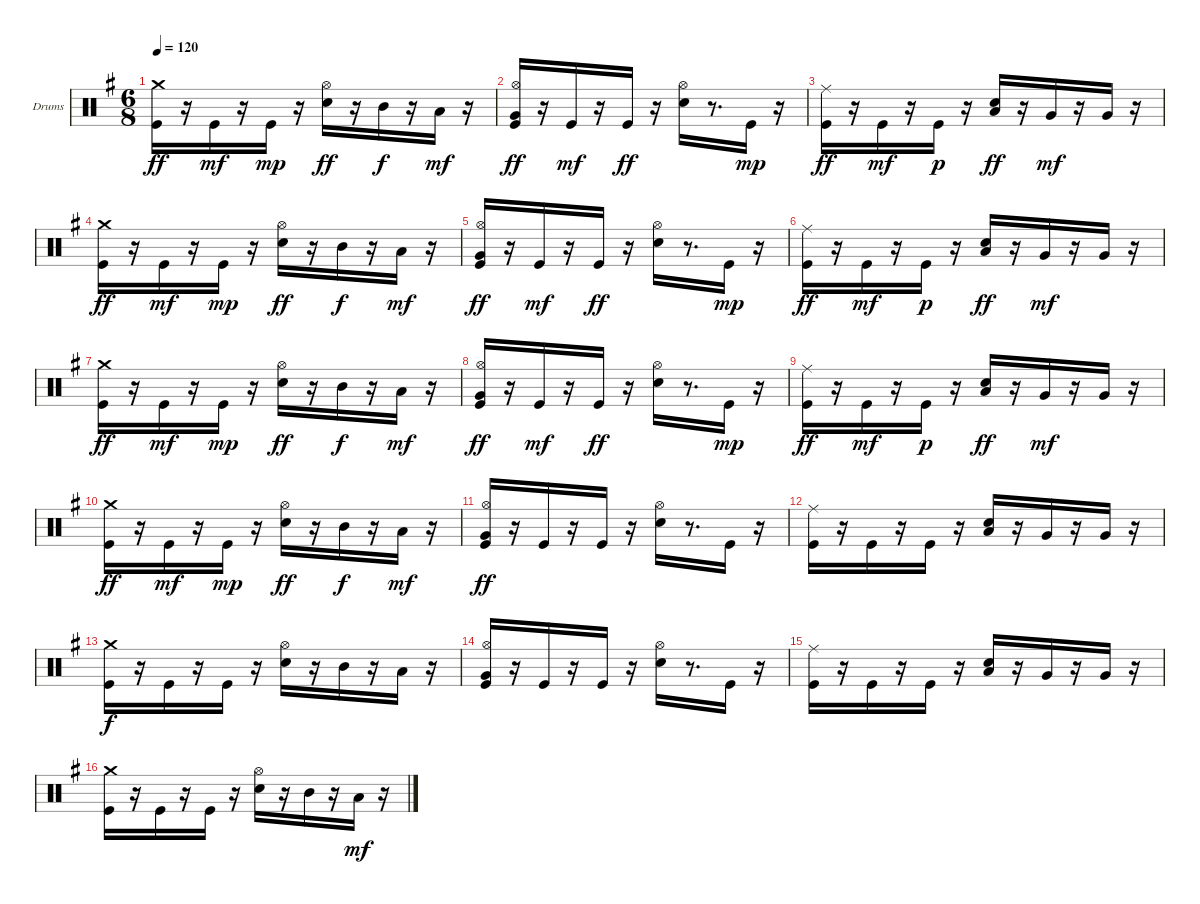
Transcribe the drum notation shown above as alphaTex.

\bracketExtendMode groupsimilarinstruments
\firstSystemTrackNameOrientation horizontal
\otherSystemsTrackNameOrientation horizontal
\track ("Drumkit" "Drums") {instrument percussion}
\staff {score}
\articulation defaults
\ts (6 8)
\tempo 120
\clef neutral
\ks eminor
("Crash medium (hit)" "Kick (hit)").16{dy ff} r.16 "Kick (hit)".16{dy mf} r.16 "Kick (hit)".16{dy mp} r.16 ("Hi-Hat (open)" "Snare (hit) 2").16{dy ff} r.16 "Mid Tom (hit)".16{dy f} r.16 "Low Tom (hit)".16{dy mf} r.16 |
("Hi-Hat (open)" "Very Low Tom (hit)" "Kick (hit)").16{dy ff} r.16 "Kick (hit)".16{dy mf} r.16 "Kick (hit)".16{dy ff} r.16 ("Hi-Hat (open)" "Snare (hit) 2").16 r.8{d} "Kick (hit)".16{dy mp} r.16 |
("Ride (middle)" "Kick (hit)").16{dy ff} r.16 "Kick (hit)".16{dy mf} r.16 "Kick (hit)".16{dy p} r.16 ("Low Tom (hit)" "Snare (hit) 2").16{dy ff} r.16 "Very Low Tom (hit)".16{dy mf} r.16 "Very Low Tom (hit)".16 r.16 |
("Crash medium (hit)" "Kick (hit)").16{dy ff} r.16 "Kick (hit)".16{dy mf} r.16 "Kick (hit)".16{dy mp} r.16 ("Hi-Hat (open)" "Snare (hit) 2").16{dy ff} r.16 "Mid Tom (hit)".16{dy f} r.16 "Low Tom (hit)".16{dy mf} r.16 |
("Hi-Hat (open)" "Very Low Tom (hit)" "Kick (hit)").16{dy ff} r.16 "Kick (hit)".16{dy mf} r.16 "Kick (hit)".16{dy ff} r.16 ("Hi-Hat (open)" "Snare (hit) 2").16 r.8{d} "Kick (hit)".16{dy mp} r.16 |
("Ride (middle)" "Kick (hit)").16{dy ff} r.16 "Kick (hit)".16{dy mf} r.16 "Kick (hit)".16{dy p} r.16 ("Low Tom (hit)" "Snare (hit) 2").16{dy ff} r.16 "Very Low Tom (hit)".16{dy mf} r.16 "Very Low Tom (hit)".16 r.16 |
("Crash medium (hit)" "Kick (hit)").16{dy ff} r.16 "Kick (hit)".16{dy mf} r.16 "Kick (hit)".16{dy mp} r.16 ("Hi-Hat (open)" "Snare (hit) 2").16{dy ff} r.16 "Mid Tom (hit)".16{dy f} r.16 "Low Tom (hit)".16{dy mf} r.16 |
("Hi-Hat (open)" "Very Low Tom (hit)" "Kick (hit)").16{dy ff} r.16 "Kick (hit)".16{dy mf} r.16 "Kick (hit)".16{dy ff} r.16 ("Hi-Hat (open)" "Snare (hit) 2").16 r.8{d} "Kick (hit)".16{dy mp} r.16 |
("Ride (middle)" "Kick (hit)").16{dy ff} r.16 "Kick (hit)".16{dy mf} r.16 "Kick (hit)".16{dy p} r.16 ("Low Tom (hit)" "Snare (hit) 2").16{dy ff} r.16 "Very Low Tom (hit)".16{dy mf} r.16 "Very Low Tom (hit)".16 r.16 |
("Crash medium (hit)" "Kick (hit)").16{dy ff} r.16 "Kick (hit)".16{dy mf} r.16 "Kick (hit)".16{dy mp} r.16 ("Hi-Hat (open)" "Snare (hit) 2").16{dy ff} r.16 "Mid Tom (hit)".16{dy f} r.16 "Low Tom (hit)".16{dy mf} r.16 |
("Hi-Hat (open)" "Very Low Tom (hit)" "Kick (hit)").16{dy ff} r.16 "Kick (hit)".16 r.16 "Kick (hit)".16 r.16 ("Hi-Hat (open)" "Snare (hit) 2").16 r.8{d} "Kick (hit)".16 r.16 |
("Ride (middle)" "Kick (hit)").16 r.16 "Kick (hit)".16 r.16 "Kick (hit)".16 r.16 ("Low Tom (hit)" "Snare (hit) 2").16 r.16 "Very Low Tom (hit)".16 r.16 "Very Low Tom (hit)".16 r.16 |
("Crash medium (hit)" "Kick (hit)").16{dy f} r.16 "Kick (hit)".16 r.16 "Kick (hit)".16 r.16 ("Hi-Hat (open)" "Snare (hit) 2").16 r.16 "Mid Tom (hit)".16 r.16 "Low Tom (hit)".16 r.16 |
("Hi-Hat (open)" "Very Low Tom (hit)" "Kick (hit)").16 r.16 "Kick (hit)".16 r.16 "Kick (hit)".16 r.16 ("Hi-Hat (open)" "Snare (hit) 2").16 r.8{d} "Kick (hit)".16 r.16 |
("Ride (middle)" "Kick (hit)").16 r.16 "Kick (hit)".16 r.16 "Kick (hit)".16 r.16 ("Low Tom (hit)" "Snare (hit) 2").16 r.16 "Very Low Tom (hit)".16 r.16 "Very Low Tom (hit)".16 r.16 |
("Crash medium (hit)" "Kick (hit)").16 r.16 "Kick (hit)".16 r.16 "Kick (hit)".16 r.16 ("Hi-Hat (open)" "Snare (hit) 2").16 r.16 "Mid Tom (hit)".16 r.16 "Low Tom (hit)".16{dy mf} r.16
